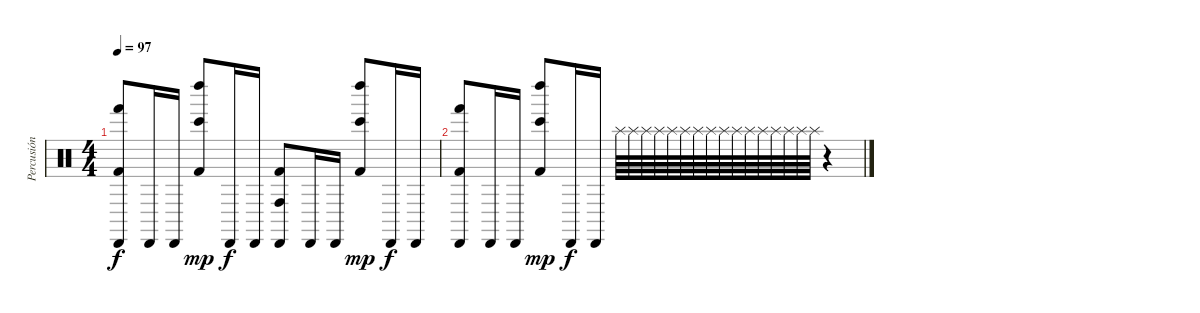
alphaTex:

\track ("Percusión" "Percusión") {instrument percussion}
\staff {score}
\articulation defaults
\ts (4 4)
\tempo 97
\clef neutral
\ks c
("Hand (hit)" "Cabasa (hit)" "Kick (hit) 2").8{dy f} "Cabasa (hit)".16 "Cabasa (hit)".16 ("Bongo High (hit)" "Kick (hit) 2" "Left Maraca (hit)").8{dy mp} "Cabasa (hit)".16{dy f} "Cabasa (hit)".16 ("Conga high (hit)" "Cabasa (hit)" "Kick (hit) 2").8 "Cabasa (hit)".16 "Cabasa (hit)".16 ("Bongo High (hit)" "Kick (hit) 2" "Left Maraca (hit)").8{dy mp} "Cabasa (hit)".16{dy f} "Cabasa (hit)".16 |
("Hand (hit)" "Cabasa (hit)" "Kick (hit) 2").8 "Cabasa (hit)".16 "Cabasa (hit)".16 ("Bongo High (hit)" "Kick (hit) 2" "Left Maraca (hit)").8{dy mp} "Cabasa (hit)".16{dy f} "Cabasa (hit)".16 "Splash (hit)".64 "Splash (hit)".64 "Splash (hit)".64 "Splash (hit)".64 "Splash (hit)".64 "Splash (hit)".64 "Splash (hit)".64 "Splash (hit)".64 "Splash (hit)".64 "Splash (hit)".64 "Splash (hit)".64 "Splash (hit)".64 "Splash (hit)".64 "Splash (hit)".64 "Splash (hit)".64 "Splash (hit)".64 r.4
